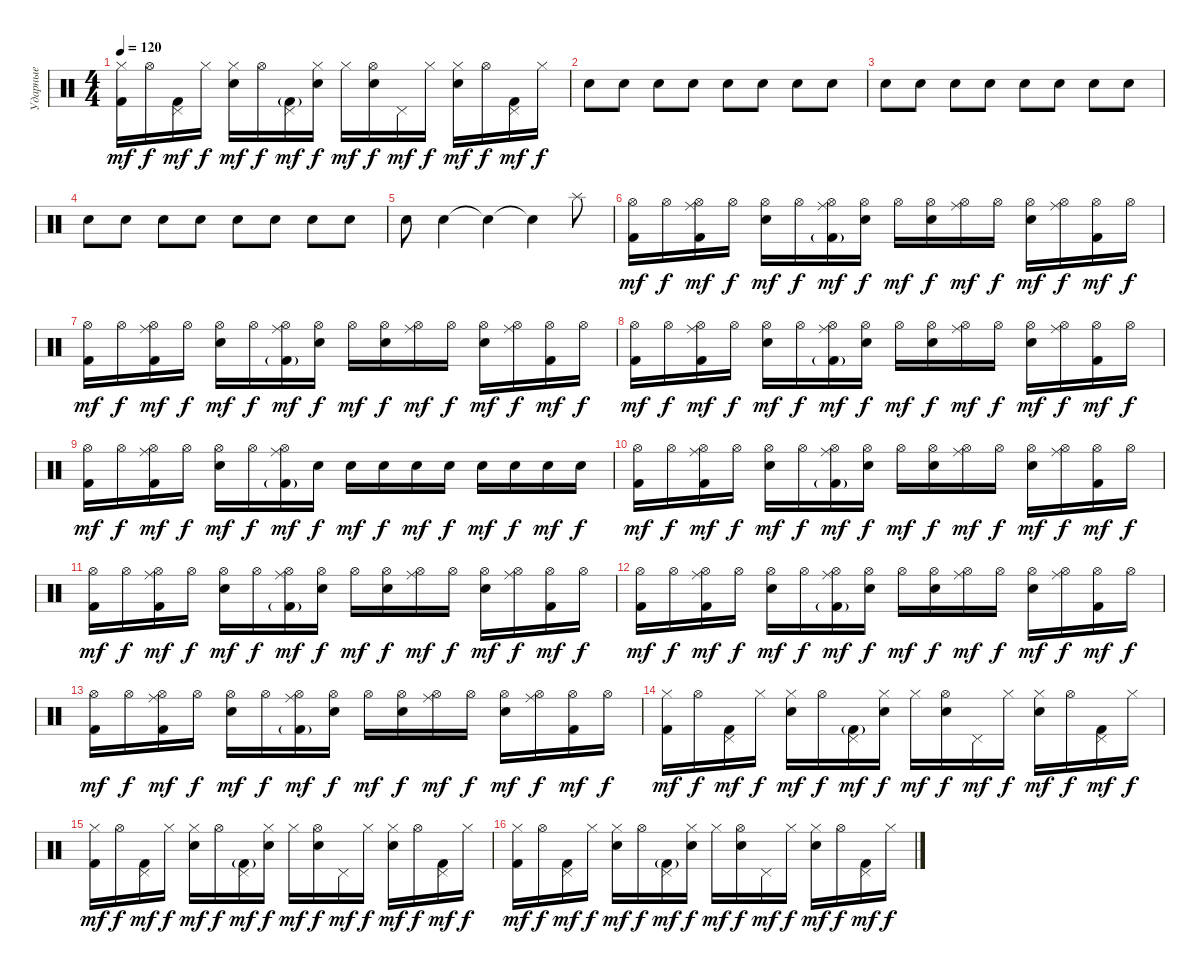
\track ("Ударные" "Ударные") {instrument percussion}
\staff {score}
\articulation defaults
\ts (4 4)
\tempo 120
\clef neutral
\ks c
("Kick (hit) 2" "Hi-Hat (closed)").16{dy mf} "Hi-Hat (open)".16{dy f} ("Kick (hit) 2" "Pedal Hi-Hat (hit)").16{dy mf} "Hi-Hat (closed)".16{dy f} ("Snare (hit) 2" "Hi-Hat (closed)").16{dy mf} "Hi-Hat (open)".16{dy f} ("Kick (hit) 2"{g} "Pedal Hi-Hat (hit)").16{dy mf} ("Snare (hit) 2" "Hi-Hat (closed)").16{dy f} "Hi-Hat (closed)".16{dy mf} ("Snare (hit) 2" "Hi-Hat (open)").16{dy f} "Pedal Hi-Hat (hit)".16{dy mf} "Hi-Hat (closed)".16{dy f} ("Snare (hit) 2" "Hi-Hat (closed)").16{dy mf} "Hi-Hat (open)".16{dy f} ("Kick (hit) 2" "Pedal Hi-Hat (hit)").16{dy mf} "Hi-Hat (closed)".16{dy f} |
"Snare (hit) 2".8 "Snare (hit) 2".8 "Snare (hit) 2".8 "Snare (hit) 2".8 "Snare (hit) 2".8 "Snare (hit) 2".8 "Snare (hit) 2".8 "Snare (hit) 2".8 |
"Snare (hit) 2".8 "Snare (hit) 2".8 "Snare (hit) 2".8 "Snare (hit) 2".8 "Snare (hit) 2".8 "Snare (hit) 2".8 "Snare (hit) 2".8 "Snare (hit) 2".8 |
"Snare (hit) 2".8 "Snare (hit) 2".8 "Snare (hit) 2".8 "Snare (hit) 2".8 "Snare (hit) 2".8 "Snare (hit) 2".8 "Snare (hit) 2".8 "Snare (hit) 2".8 |
"Snare (hit) 2".8 "Snare (hit) 2".4 "Snare (hit)"{t}.4 "Snare (hit)"{t}.4 "Splash (hit)".8 |
("Kick (hit) 2" "Hi-Hat (open)").16{dy mf} "Hi-Hat (open)".16{dy f} ("Kick (hit) 2" "Hi-Hat (open)" "Ride (middle)").16{dy mf} "Hi-Hat (open)".16{dy f} ("Snare (hit) 2" "Hi-Hat (open)").16{dy mf} "Hi-Hat (open)".16{dy f} ("Kick (hit) 2"{g} "Hi-Hat (open)" "Ride (middle)").16{dy mf} ("Snare (hit) 2" "Hi-Hat (open)").16{dy f} "Hi-Hat (open)".16{dy mf} ("Snare (hit) 2" "Hi-Hat (open)").16{dy f} ("Hi-Hat (open)" "Ride (middle)").16{dy mf} "Hi-Hat (open)".16{dy f} ("Snare (hit) 2" "Hi-Hat (open)").16{dy mf} ("Hi-Hat (open)" "Ride (middle)").16{dy f} ("Kick (hit) 2" "Hi-Hat (open)").16{dy mf} "Hi-Hat (open)".16{dy f} |
("Kick (hit) 2" "Hi-Hat (open)").16{dy mf} "Hi-Hat (open)".16{dy f} ("Kick (hit) 2" "Hi-Hat (open)" "Ride (middle)").16{dy mf} "Hi-Hat (open)".16{dy f} ("Snare (hit) 2" "Hi-Hat (open)").16{dy mf} "Hi-Hat (open)".16{dy f} ("Kick (hit) 2"{g} "Hi-Hat (open)" "Ride (middle)").16{dy mf} ("Snare (hit) 2" "Hi-Hat (open)").16{dy f} "Hi-Hat (open)".16{dy mf} ("Snare (hit) 2" "Hi-Hat (open)").16{dy f} ("Hi-Hat (open)" "Ride (middle)").16{dy mf} "Hi-Hat (open)".16{dy f} ("Snare (hit) 2" "Hi-Hat (open)").16{dy mf} ("Hi-Hat (open)" "Ride (middle)").16{dy f} ("Kick (hit) 2" "Hi-Hat (open)").16{dy mf} "Hi-Hat (open)".16{dy f} |
("Kick (hit) 2" "Hi-Hat (open)").16{dy mf} "Hi-Hat (open)".16{dy f} ("Kick (hit) 2" "Hi-Hat (open)" "Ride (middle)").16{dy mf} "Hi-Hat (open)".16{dy f} ("Snare (hit) 2" "Hi-Hat (open)").16{dy mf} "Hi-Hat (open)".16{dy f} ("Kick (hit) 2"{g} "Hi-Hat (open)" "Ride (middle)").16{dy mf} ("Snare (hit) 2" "Hi-Hat (open)").16{dy f} "Hi-Hat (open)".16{dy mf} ("Snare (hit) 2" "Hi-Hat (open)").16{dy f} ("Hi-Hat (open)" "Ride (middle)").16{dy mf} "Hi-Hat (open)".16{dy f} ("Snare (hit) 2" "Hi-Hat (open)").16{dy mf} ("Hi-Hat (open)" "Ride (middle)").16{dy f} ("Kick (hit) 2" "Hi-Hat (open)").16{dy mf} "Hi-Hat (open)".16{dy f} |
("Kick (hit) 2" "Hi-Hat (open)").16{dy mf} "Hi-Hat (open)".16{dy f} ("Kick (hit) 2" "Hi-Hat (open)" "Ride (middle)").16{dy mf} "Hi-Hat (open)".16{dy f} ("Snare (hit) 2" "Hi-Hat (open)").16{dy mf} "Hi-Hat (open)".16{dy f} ("Kick (hit) 2"{g} "Hi-Hat (open)" "Ride (middle)").16{dy mf} "Snare (hit) 2".16{dy f} "Snare (hit) 2".16{dy mf} "Snare (hit) 2".16{dy f} "Snare (hit) 2".16{dy mf} "Snare (hit) 2".16{dy f} "Snare (hit) 2".16{dy mf} "Snare (hit) 2".16{dy f} "Snare (hit) 2".16{dy mf} "Snare (hit) 2".16{dy f} |
("Kick (hit) 2" "Hi-Hat (open)").16{dy mf} "Hi-Hat (open)".16{dy f} ("Kick (hit) 2" "Hi-Hat (open)" "Ride (middle)").16{dy mf} "Hi-Hat (open)".16{dy f} ("Snare (hit) 2" "Hi-Hat (open)").16{dy mf} "Hi-Hat (open)".16{dy f} ("Kick (hit) 2"{g} "Hi-Hat (open)" "Ride (middle)").16{dy mf} ("Snare (hit) 2" "Hi-Hat (open)").16{dy f} "Hi-Hat (open)".16{dy mf} ("Snare (hit) 2" "Hi-Hat (open)").16{dy f} ("Hi-Hat (open)" "Ride (middle)").16{dy mf} "Hi-Hat (open)".16{dy f} ("Snare (hit) 2" "Hi-Hat (open)").16{dy mf} ("Hi-Hat (open)" "Ride (middle)").16{dy f} ("Kick (hit) 2" "Hi-Hat (open)").16{dy mf} "Hi-Hat (open)".16{dy f} |
("Kick (hit) 2" "Hi-Hat (open)").16{dy mf} "Hi-Hat (open)".16{dy f} ("Kick (hit) 2" "Hi-Hat (open)" "Ride (middle)").16{dy mf} "Hi-Hat (open)".16{dy f} ("Snare (hit) 2" "Hi-Hat (open)").16{dy mf} "Hi-Hat (open)".16{dy f} ("Kick (hit) 2"{g} "Hi-Hat (open)" "Ride (middle)").16{dy mf} ("Snare (hit) 2" "Hi-Hat (open)").16{dy f} "Hi-Hat (open)".16{dy mf} ("Snare (hit) 2" "Hi-Hat (open)").16{dy f} ("Hi-Hat (open)" "Ride (middle)").16{dy mf} "Hi-Hat (open)".16{dy f} ("Snare (hit) 2" "Hi-Hat (open)").16{dy mf} ("Hi-Hat (open)" "Ride (middle)").16{dy f} ("Kick (hit) 2" "Hi-Hat (open)").16{dy mf} "Hi-Hat (open)".16{dy f} |
("Kick (hit) 2" "Hi-Hat (open)").16{dy mf} "Hi-Hat (open)".16{dy f} ("Kick (hit) 2" "Hi-Hat (open)" "Ride (middle)").16{dy mf} "Hi-Hat (open)".16{dy f} ("Snare (hit) 2" "Hi-Hat (open)").16{dy mf} "Hi-Hat (open)".16{dy f} ("Kick (hit) 2"{g} "Hi-Hat (open)" "Ride (middle)").16{dy mf} ("Snare (hit) 2" "Hi-Hat (open)").16{dy f} "Hi-Hat (open)".16{dy mf} ("Snare (hit) 2" "Hi-Hat (open)").16{dy f} ("Hi-Hat (open)" "Ride (middle)").16{dy mf} "Hi-Hat (open)".16{dy f} ("Snare (hit) 2" "Hi-Hat (open)").16{dy mf} ("Hi-Hat (open)" "Ride (middle)").16{dy f} ("Kick (hit) 2" "Hi-Hat (open)").16{dy mf} "Hi-Hat (open)".16{dy f} |
("Kick (hit) 2" "Hi-Hat (open)").16{dy mf} "Hi-Hat (open)".16{dy f} ("Kick (hit) 2" "Hi-Hat (open)" "Ride (middle)").16{dy mf} "Hi-Hat (open)".16{dy f} ("Snare (hit) 2" "Hi-Hat (open)").16{dy mf} "Hi-Hat (open)".16{dy f} ("Kick (hit) 2"{g} "Hi-Hat (open)" "Ride (middle)").16{dy mf} ("Snare (hit) 2" "Hi-Hat (open)").16{dy f} "Hi-Hat (open)".16{dy mf} ("Snare (hit) 2" "Hi-Hat (open)").16{dy f} ("Hi-Hat (open)" "Ride (middle)").16{dy mf} "Hi-Hat (open)".16{dy f} ("Snare (hit) 2" "Hi-Hat (open)").16{dy mf} ("Hi-Hat (open)" "Ride (middle)").16{dy f} ("Kick (hit) 2" "Hi-Hat (open)").16{dy mf} "Hi-Hat (open)".16{dy f} |
("Kick (hit) 2" "Hi-Hat (closed)").16{dy mf} "Hi-Hat (open)".16{dy f} ("Kick (hit) 2" "Pedal Hi-Hat (hit)").16{dy mf} "Hi-Hat (closed)".16{dy f} ("Snare (hit) 2" "Hi-Hat (closed)").16{dy mf} "Hi-Hat (open)".16{dy f} ("Kick (hit) 2"{g} "Pedal Hi-Hat (hit)").16{dy mf} ("Snare (hit) 2" "Hi-Hat (closed)").16{dy f} "Hi-Hat (closed)".16{dy mf} ("Snare (hit) 2" "Hi-Hat (open)").16{dy f} "Pedal Hi-Hat (hit)".16{dy mf} "Hi-Hat (closed)".16{dy f} ("Snare (hit) 2" "Hi-Hat (closed)").16{dy mf} "Hi-Hat (open)".16{dy f} ("Kick (hit) 2" "Pedal Hi-Hat (hit)").16{dy mf} "Hi-Hat (closed)".16{dy f} |
("Kick (hit) 2" "Hi-Hat (closed)").16{dy mf} "Hi-Hat (open)".16{dy f} ("Kick (hit) 2" "Pedal Hi-Hat (hit)").16{dy mf} "Hi-Hat (closed)".16{dy f} ("Snare (hit) 2" "Hi-Hat (closed)").16{dy mf} "Hi-Hat (open)".16{dy f} ("Kick (hit) 2"{g} "Pedal Hi-Hat (hit)").16{dy mf} ("Snare (hit) 2" "Hi-Hat (closed)").16{dy f} "Hi-Hat (closed)".16{dy mf} ("Snare (hit) 2" "Hi-Hat (open)").16{dy f} "Pedal Hi-Hat (hit)".16{dy mf} "Hi-Hat (closed)".16{dy f} ("Snare (hit) 2" "Hi-Hat (closed)").16{dy mf} "Hi-Hat (open)".16{dy f} ("Kick (hit) 2" "Pedal Hi-Hat (hit)").16{dy mf} "Hi-Hat (closed)".16{dy f} |
("Kick (hit) 2" "Hi-Hat (closed)").16{dy mf} "Hi-Hat (open)".16{dy f} ("Kick (hit) 2" "Pedal Hi-Hat (hit)").16{dy mf} "Hi-Hat (closed)".16{dy f} ("Snare (hit) 2" "Hi-Hat (closed)").16{dy mf} "Hi-Hat (open)".16{dy f} ("Kick (hit) 2"{g} "Pedal Hi-Hat (hit)").16{dy mf} ("Snare (hit) 2" "Hi-Hat (closed)").16{dy f} "Hi-Hat (closed)".16{dy mf} ("Snare (hit) 2" "Hi-Hat (open)").16{dy f} "Pedal Hi-Hat (hit)".16{dy mf} "Hi-Hat (closed)".16{dy f} ("Snare (hit) 2" "Hi-Hat (closed)").16{dy mf} "Hi-Hat (open)".16{dy f} ("Kick (hit) 2" "Pedal Hi-Hat (hit)").16{dy mf} "Hi-Hat (closed)".16{dy f}
